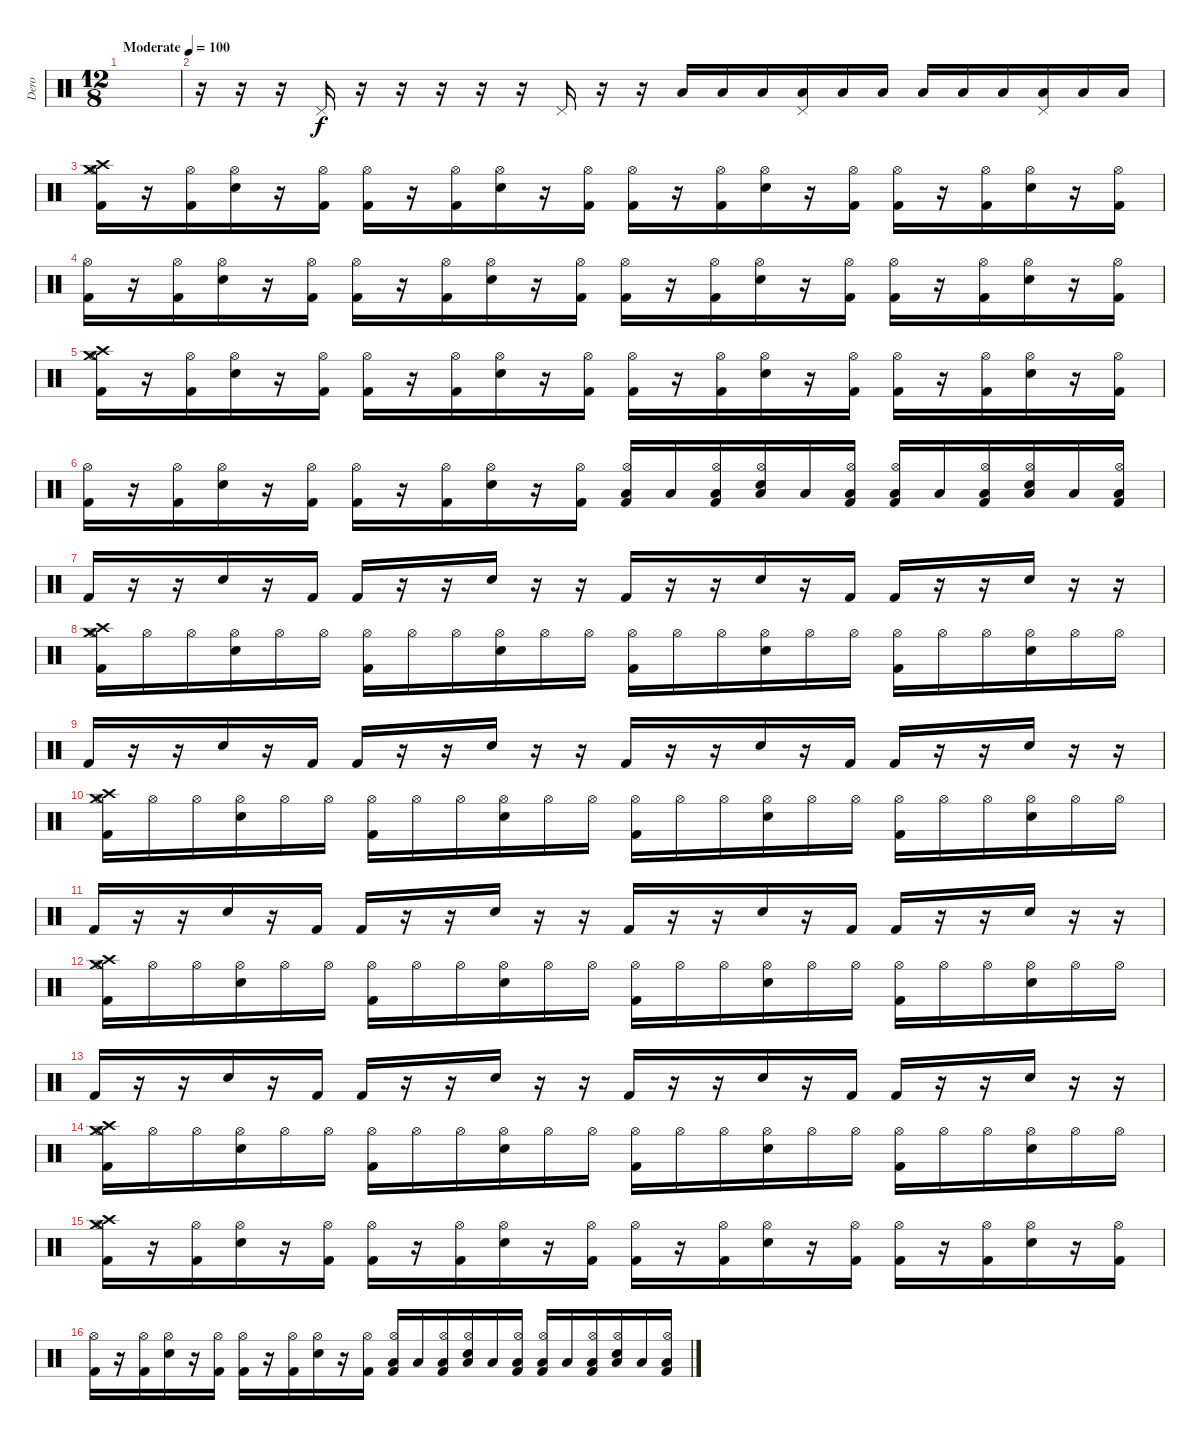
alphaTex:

\track ("Dero" "Dero") {instrument percussion}
\staff {score}
\articulation defaults
\ts (12 8)
\tempo (100 "Moderate")
\clef neutral
\ks c
|
r.16 r.16 r.16 "Pedal Hi-Hat (hit)".16{volume 13} r.16{volume 6} r.16 r.16 r.16 r.16 "Pedal Hi-Hat (hit)".16{volume 16} r.16{volume 6} r.16 "Low Tom (hit)".16{volume 16} "Low Tom (hit)".16 "Low Tom (hit)".16 ("Pedal Hi-Hat (hit)" "Low Tom (hit)").16 "Low Tom (hit)".16 "Low Tom (hit)".16 "Low Tom (hit)".16 "Low Tom (hit)".16 "Low Tom (hit)".16 ("Pedal Hi-Hat (hit)" "Low Tom (hit)").16 "Low Tom (hit)".16 "Low Tom (hit)".16 |
("Crash high (hit)" "Hi-Hat (open)" "Crash medium (hit)" "Kick (hit) 2").16{volume 16} r.16 ("Hi-Hat (open)" "Kick (hit) 2").16 ("Hi-Hat (open)" "Snare (hit) 2").16 r.16 ("Hi-Hat (open)" "Kick (hit) 2").16 ("Hi-Hat (open)" "Kick (hit) 2").16 r.16 ("Hi-Hat (open)" "Kick (hit) 2").16 ("Hi-Hat (open)" "Snare (hit) 2").16 r.16 ("Hi-Hat (open)" "Kick (hit) 2").16 ("Hi-Hat (open)" "Kick (hit) 2").16 r.16 ("Hi-Hat (open)" "Kick (hit) 2").16 ("Hi-Hat (open)" "Snare (hit) 2").16 r.16 ("Hi-Hat (open)" "Kick (hit) 2").16 ("Hi-Hat (open)" "Kick (hit) 2").16 r.16 ("Hi-Hat (open)" "Kick (hit) 2").16 ("Hi-Hat (open)" "Snare (hit) 2").16 r.16 ("Hi-Hat (open)" "Kick (hit) 2").16 |
("Hi-Hat (open)" "Kick (hit) 2").16{volume 16} r.16 ("Hi-Hat (open)" "Kick (hit) 2").16 ("Hi-Hat (open)" "Snare (hit) 2").16 r.16 ("Hi-Hat (open)" "Kick (hit) 2").16 ("Hi-Hat (open)" "Kick (hit) 2").16 r.16 ("Hi-Hat (open)" "Kick (hit) 2").16 ("Hi-Hat (open)" "Snare (hit) 2").16 r.16 ("Hi-Hat (open)" "Kick (hit) 2").16 ("Hi-Hat (open)" "Kick (hit) 2").16 r.16 ("Hi-Hat (open)" "Kick (hit) 2").16 ("Hi-Hat (open)" "Snare (hit) 2").16 r.16 ("Hi-Hat (open)" "Kick (hit) 2").16 ("Hi-Hat (open)" "Kick (hit) 2").16 r.16 ("Hi-Hat (open)" "Kick (hit) 2").16 ("Hi-Hat (open)" "Snare (hit) 2").16 r.16 ("Hi-Hat (open)" "Kick (hit) 2").16 |
("Crash high (hit)" "Hi-Hat (open)" "Crash medium (hit)" "Kick (hit) 2").16{volume 16} r.16 ("Hi-Hat (open)" "Kick (hit) 2").16 ("Hi-Hat (open)" "Snare (hit) 2").16 r.16 ("Hi-Hat (open)" "Kick (hit) 2").16 ("Hi-Hat (open)" "Kick (hit) 2").16 r.16 ("Hi-Hat (open)" "Kick (hit) 2").16 ("Hi-Hat (open)" "Snare (hit) 2").16 r.16 ("Hi-Hat (open)" "Kick (hit) 2").16 ("Hi-Hat (open)" "Kick (hit) 2").16 r.16 ("Hi-Hat (open)" "Kick (hit) 2").16 ("Hi-Hat (open)" "Snare (hit) 2").16 r.16 ("Hi-Hat (open)" "Kick (hit) 2").16 ("Hi-Hat (open)" "Kick (hit) 2").16 r.16 ("Hi-Hat (open)" "Kick (hit) 2").16 ("Hi-Hat (open)" "Snare (hit) 2").16 r.16 ("Hi-Hat (open)" "Kick (hit) 2").16 |
("Hi-Hat (open)" "Kick (hit) 2").16{volume 16} r.16 ("Hi-Hat (open)" "Kick (hit) 2").16 ("Hi-Hat (open)" "Snare (hit) 2").16 r.16 ("Hi-Hat (open)" "Kick (hit) 2").16 ("Hi-Hat (open)" "Kick (hit) 2").16 r.16 ("Hi-Hat (open)" "Kick (hit) 2").16 ("Hi-Hat (open)" "Snare (hit) 2").16 r.16 ("Hi-Hat (open)" "Kick (hit) 2").16 ("Hi-Hat (open)" "Low Tom (hit)" "Kick (hit) 2").16 "Low Tom (hit)".16 ("Hi-Hat (open)" "Low Tom (hit)" "Kick (hit) 2").16 ("Hi-Hat (open)" "Low Tom (hit)" "Snare (hit) 2").16 "Low Tom (hit)".16 ("Hi-Hat (open)" "Low Tom (hit)" "Kick (hit) 2").16 ("Hi-Hat (open)" "Low Tom (hit)" "Kick (hit) 2").16 "Low Tom (hit)".16 ("Hi-Hat (open)" "Low Tom (hit)" "Kick (hit) 2").16 ("Hi-Hat (open)" "Low Tom (hit)" "Snare (hit) 2").16 "Low Tom (hit)".16 ("Hi-Hat (open)" "Low Tom (hit)" "Kick (hit) 2").16 |
"Kick (hit) 2".16 r.16 r.16 "Snare (hit) 2".16 r.16 "Kick (hit) 2".16 "Kick (hit) 2".16 r.16 r.16 "Snare (hit) 2".16 r.16 r.16 "Kick (hit) 2".16 r.16 r.16 "Snare (hit) 2".16 r.16 "Kick (hit) 2".16 "Kick (hit) 2".16 r.16 r.16 "Snare (hit) 2".16 r.16 r.16 |
("Crash medium (hit)" "Crash high (hit)" "Hi-Hat (open)" "Kick (hit) 2").16 "Hi-Hat (open)".16 "Hi-Hat (open)".16 ("Hi-Hat (open)" "Snare (hit) 2").16 "Hi-Hat (open)".16 "Hi-Hat (open)".16 ("Hi-Hat (open)" "Kick (hit) 2").16 "Hi-Hat (open)".16 "Hi-Hat (open)".16 ("Hi-Hat (open)" "Snare (hit) 2").16 "Hi-Hat (open)".16 "Hi-Hat (open)".16 ("Hi-Hat (open)" "Kick (hit) 2").16 "Hi-Hat (open)".16 "Hi-Hat (open)".16 ("Hi-Hat (open)" "Snare (hit) 2").16 "Hi-Hat (open)".16 "Hi-Hat (open)".16 ("Hi-Hat (open)" "Kick (hit) 2").16 "Hi-Hat (open)".16 "Hi-Hat (open)".16 ("Hi-Hat (open)" "Snare (hit) 2").16 "Hi-Hat (open)".16 "Hi-Hat (open)".16 |
"Kick (hit) 2".16 r.16 r.16 "Snare (hit) 2".16 r.16 "Kick (hit) 2".16 "Kick (hit) 2".16 r.16 r.16 "Snare (hit) 2".16 r.16 r.16 "Kick (hit) 2".16 r.16 r.16 "Snare (hit) 2".16 r.16 "Kick (hit) 2".16 "Kick (hit) 2".16 r.16 r.16 "Snare (hit) 2".16 r.16 r.16 |
("Crash medium (hit)" "Crash high (hit)" "Hi-Hat (open)" "Kick (hit) 2").16 "Hi-Hat (open)".16 "Hi-Hat (open)".16 ("Hi-Hat (open)" "Snare (hit) 2").16 "Hi-Hat (open)".16 "Hi-Hat (open)".16 ("Hi-Hat (open)" "Kick (hit) 2").16 "Hi-Hat (open)".16 "Hi-Hat (open)".16 ("Hi-Hat (open)" "Snare (hit) 2").16 "Hi-Hat (open)".16 "Hi-Hat (open)".16 ("Hi-Hat (open)" "Kick (hit) 2").16 "Hi-Hat (open)".16 "Hi-Hat (open)".16 ("Hi-Hat (open)" "Snare (hit) 2").16 "Hi-Hat (open)".16 "Hi-Hat (open)".16 ("Hi-Hat (open)" "Kick (hit) 2").16 "Hi-Hat (open)".16 "Hi-Hat (open)".16 ("Hi-Hat (open)" "Snare (hit) 2").16 "Hi-Hat (open)".16 "Hi-Hat (open)".16 |
"Kick (hit) 2".16 r.16 r.16 "Snare (hit) 2".16 r.16 "Kick (hit) 2".16 "Kick (hit) 2".16 r.16 r.16 "Snare (hit) 2".16 r.16 r.16 "Kick (hit) 2".16 r.16 r.16 "Snare (hit) 2".16 r.16 "Kick (hit) 2".16 "Kick (hit) 2".16 r.16 r.16 "Snare (hit) 2".16 r.16 r.16 |
("Crash medium (hit)" "Crash high (hit)" "Hi-Hat (open)" "Kick (hit) 2").16 "Hi-Hat (open)".16 "Hi-Hat (open)".16 ("Hi-Hat (open)" "Snare (hit) 2").16 "Hi-Hat (open)".16 "Hi-Hat (open)".16 ("Hi-Hat (open)" "Kick (hit) 2").16 "Hi-Hat (open)".16 "Hi-Hat (open)".16 ("Hi-Hat (open)" "Snare (hit) 2").16 "Hi-Hat (open)".16 "Hi-Hat (open)".16 ("Hi-Hat (open)" "Kick (hit) 2").16 "Hi-Hat (open)".16 "Hi-Hat (open)".16 ("Hi-Hat (open)" "Snare (hit) 2").16 "Hi-Hat (open)".16 "Hi-Hat (open)".16 ("Hi-Hat (open)" "Kick (hit) 2").16 "Hi-Hat (open)".16 "Hi-Hat (open)".16 ("Hi-Hat (open)" "Snare (hit) 2").16 "Hi-Hat (open)".16 "Hi-Hat (open)".16 |
"Kick (hit) 2".16 r.16 r.16 "Snare (hit) 2".16 r.16 "Kick (hit) 2".16 "Kick (hit) 2".16 r.16 r.16 "Snare (hit) 2".16 r.16 r.16 "Kick (hit) 2".16 r.16 r.16 "Snare (hit) 2".16 r.16 "Kick (hit) 2".16 "Kick (hit) 2".16 r.16 r.16 "Snare (hit) 2".16 r.16 r.16 |
("Crash medium (hit)" "Crash high (hit)" "Hi-Hat (open)" "Kick (hit) 2").16 "Hi-Hat (open)".16 "Hi-Hat (open)".16 ("Hi-Hat (open)" "Snare (hit) 2").16 "Hi-Hat (open)".16 "Hi-Hat (open)".16 ("Hi-Hat (open)" "Kick (hit) 2").16 "Hi-Hat (open)".16 "Hi-Hat (open)".16 ("Hi-Hat (open)" "Snare (hit) 2").16 "Hi-Hat (open)".16 "Hi-Hat (open)".16 ("Hi-Hat (open)" "Kick (hit) 2").16 "Hi-Hat (open)".16 "Hi-Hat (open)".16 ("Hi-Hat (open)" "Snare (hit) 2").16 "Hi-Hat (open)".16 "Hi-Hat (open)".16 ("Hi-Hat (open)" "Kick (hit) 2").16 "Hi-Hat (open)".16 "Hi-Hat (open)".16 ("Hi-Hat (open)" "Snare (hit) 2").16 "Hi-Hat (open)".16 "Hi-Hat (open)".16 |
("Crash high (hit)" "Hi-Hat (open)" "Crash medium (hit)" "Kick (hit) 2").16{volume 16} r.16 ("Hi-Hat (open)" "Kick (hit) 2").16 ("Hi-Hat (open)" "Snare (hit) 2").16 r.16 ("Hi-Hat (open)" "Kick (hit) 2").16 ("Hi-Hat (open)" "Kick (hit) 2").16 r.16 ("Hi-Hat (open)" "Kick (hit) 2").16 ("Hi-Hat (open)" "Snare (hit) 2").16 r.16 ("Hi-Hat (open)" "Kick (hit) 2").16 ("Hi-Hat (open)" "Kick (hit) 2").16 r.16 ("Hi-Hat (open)" "Kick (hit) 2").16 ("Hi-Hat (open)" "Snare (hit) 2").16 r.16 ("Hi-Hat (open)" "Kick (hit) 2").16 ("Hi-Hat (open)" "Kick (hit) 2").16 r.16 ("Hi-Hat (open)" "Kick (hit) 2").16 ("Hi-Hat (open)" "Snare (hit) 2").16 r.16 ("Hi-Hat (open)" "Kick (hit) 2").16 |
("Hi-Hat (open)" "Kick (hit) 2").16{volume 16} r.16 ("Hi-Hat (open)" "Kick (hit) 2").16 ("Hi-Hat (open)" "Snare (hit) 2").16 r.16 ("Hi-Hat (open)" "Kick (hit) 2").16 ("Hi-Hat (open)" "Kick (hit) 2").16 r.16 ("Hi-Hat (open)" "Kick (hit) 2").16 ("Hi-Hat (open)" "Snare (hit) 2").16 r.16 ("Hi-Hat (open)" "Kick (hit) 2").16 ("Hi-Hat (open)" "Low Tom (hit)" "Kick (hit) 2").16 "Low Tom (hit)".16 ("Hi-Hat (open)" "Low Tom (hit)" "Kick (hit) 2").16 ("Hi-Hat (open)" "Low Tom (hit)" "Snare (hit) 2").16 "Low Tom (hit)".16 ("Hi-Hat (open)" "Low Tom (hit)" "Kick (hit) 2").16 ("Hi-Hat (open)" "Low Tom (hit)" "Kick (hit) 2").16 "Low Tom (hit)".16 ("Hi-Hat (open)" "Low Tom (hit)" "Kick (hit) 2").16 ("Hi-Hat (open)" "Low Tom (hit)" "Snare (hit) 2").16 "Low Tom (hit)".16 ("Hi-Hat (open)" "Low Tom (hit)" "Kick (hit) 2").16
